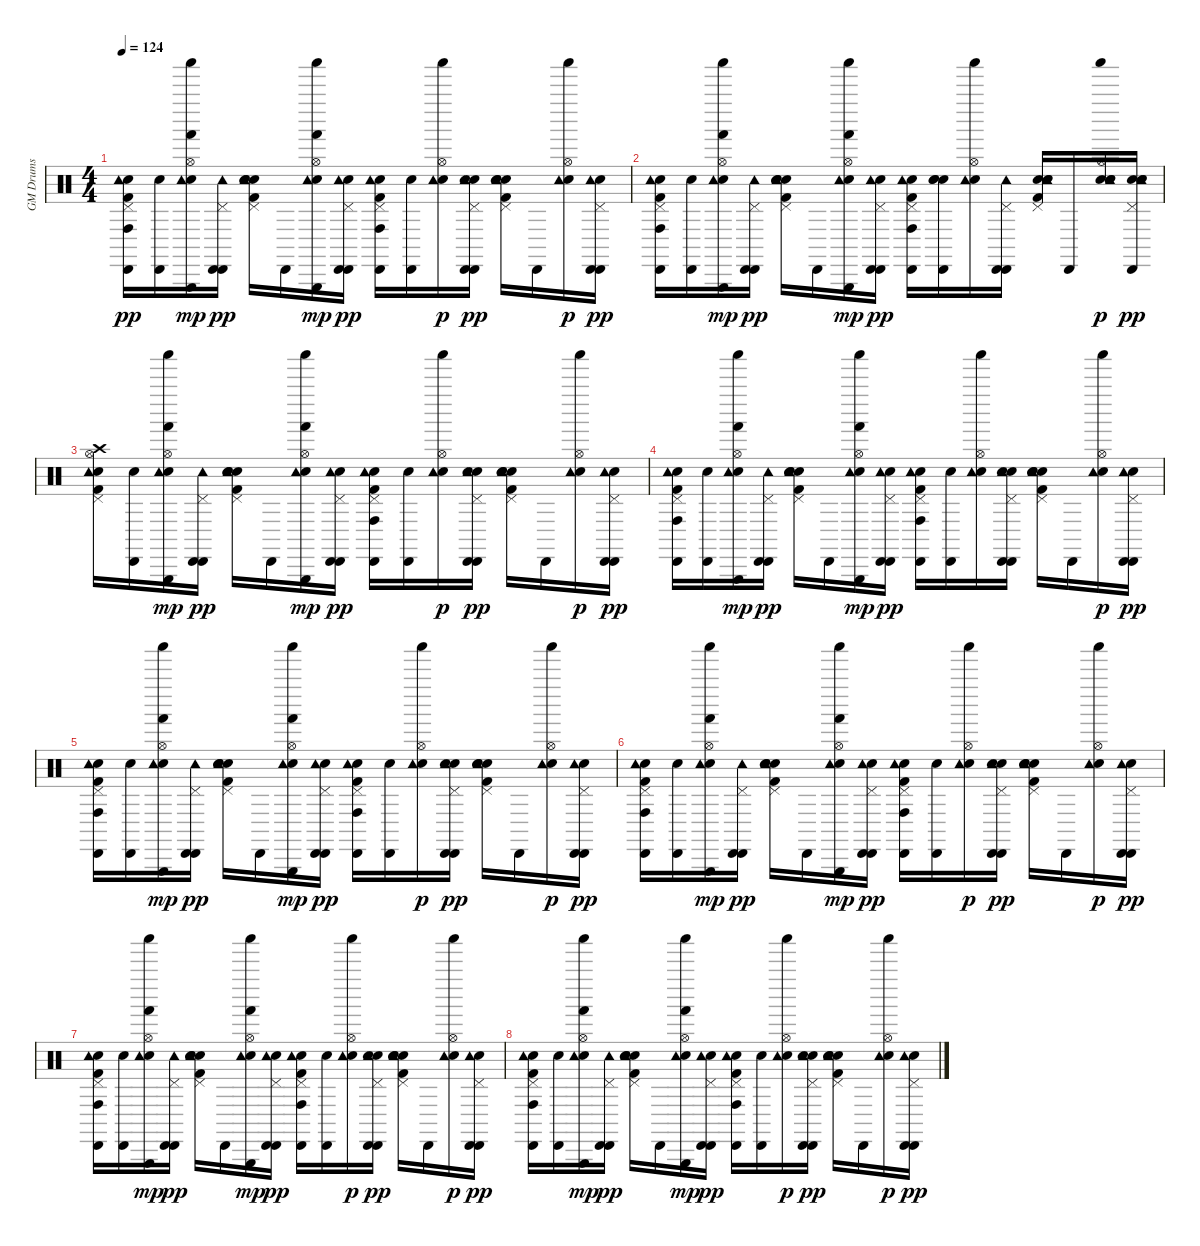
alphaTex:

\track ("GM Drums" "GM Drums") {instrument percussion}
\staff {score}
\articulation defaults
\ts (4 4)
\tempo 124
\clef neutral
\ks c
("Snare (hit)" "Kick (hit) 2" "Pedal Hi-Hat (hit)" "Tambourine (hit)" "Conga high (hit)" "Cabasa (hit)").16{dy pp} ("Snare (hit)" "Cabasa (hit)").16 ("Snare (hit)" "Hi-Hat (open)" "Tambourine (hit)" "Hand (hit)" "Triangle (hit)" "Shaker (hit)").16{dy mp} ("Pedal Hi-Hat (hit)" "Tambourine (hit)" "Cabasa (hit)" "Cabasa (hit)").16{dy pp} ("Snare (hit)" "Kick (hit) 2" "Snare (hit) 2" "Hand Clap (hit)" "Pedal Hi-Hat (hit)" "Tambourine (hit)").16 "Cabasa (hit)".16 ("Snare (hit)" "Hi-Hat (open)" "Tambourine (hit)" "Hand (hit)" "Triangle (hit)" "Shaker (hit)").16{dy mp} ("Snare (hit)" "Pedal Hi-Hat (hit)" "Tambourine (hit)" "Cabasa (hit)" "Cabasa (hit)").16{dy pp} ("Snare (hit)" "Kick (hit) 2" "Pedal Hi-Hat (hit)" "Tambourine (hit)" "Conga high (hit)" "Cabasa (hit)").16 ("Snare (hit)" "Cabasa (hit)").16 ("Snare (hit)" "Hi-Hat (open)" "Tambourine (hit)" "Shaker (hit)").16{dy p} ("Snare (hit) 2" "Hand Clap (hit)" "Pedal Hi-Hat (hit)" "Tambourine (hit)" "Cabasa (hit)" "Cabasa (hit)").16{dy pp} ("Snare (hit)" "Kick (hit) 2" "Snare (hit) 2" "Hand Clap (hit)" "Pedal Hi-Hat (hit)" "Tambourine (hit)").16 "Cabasa (hit)".16 ("Snare (hit)" "Hi-Hat (open)" "Tambourine (hit)" "Shaker (hit)").16{dy p} ("Snare (hit)" "Pedal Hi-Hat (hit)" "Tambourine (hit)" "Cabasa (hit)" "Cabasa (hit)").16{dy pp} |
("Snare (hit)" "Kick (hit) 2" "Pedal Hi-Hat (hit)" "Tambourine (hit)" "Conga high (hit)" "Cabasa (hit)").16 ("Snare (hit)" "Cabasa (hit)").16 ("Snare (hit)" "Hi-Hat (open)" "Tambourine (hit)" "Hand (hit)" "Triangle (hit)" "Shaker (hit)").16{dy mp} ("Pedal Hi-Hat (hit)" "Tambourine (hit)" "Cabasa (hit)" "Cabasa (hit)").16{dy pp} ("Snare (hit)" "Kick (hit) 2" "Snare (hit) 2" "Hand Clap (hit)" "Pedal Hi-Hat (hit)" "Tambourine (hit)").16 "Cabasa (hit)".16 ("Snare (hit)" "Hi-Hat (open)" "Tambourine (hit)" "Hand (hit)" "Triangle (hit)" "Shaker (hit)").16{dy mp} ("Snare (hit)" "Pedal Hi-Hat (hit)" "Tambourine (hit)" "Cabasa (hit)" "Cabasa (hit)").16{dy pp} ("Snare (hit)" "Kick (hit) 2" "Pedal Hi-Hat (hit)" "Tambourine (hit)" "Conga high (hit)" "Cabasa (hit)").16 ("Snare (hit)" "Snare (hit) 2" "Hand Clap (hit)" "Cabasa (hit)").16 ("Snare (hit)" "Hi-Hat (open)" "Tambourine (hit)" "Shaker (hit)").16 ("Pedal Hi-Hat (hit)" "Tambourine (hit)" "Cabasa (hit)" "Cabasa (hit)").16 ("Snare (hit)" "Kick (hit) 2" "Snare (hit) 2" "Hand Clap (hit)" "Pedal Hi-Hat (hit)" "Tambourine (hit)").16 "Cabasa (hit)".16 ("Snare (hit)" "Snare (hit) 2" "Hand Clap (hit)" "Hi-Hat (open)" "Tambourine (hit)" "Shaker (hit)").16{dy p} ("Snare (hit)" "Snare (hit) 2" "Hand Clap (hit)" "Pedal Hi-Hat (hit)" "Tambourine (hit)" "Cabasa (hit)").16{dy pp} |
("Snare (hit)" "Kick (hit) 2" "Pedal Hi-Hat (hit)" "Hi-Hat (open)" "Crash high (hit)" "Tambourine (hit)").16 ("Snare (hit)" "Cabasa (hit)").16 ("Snare (hit)" "Hi-Hat (open)" "Tambourine (hit)" "Hand (hit)" "Triangle (hit)" "Shaker (hit)").16{dy mp} ("Pedal Hi-Hat (hit)" "Tambourine (hit)" "Cabasa (hit)" "Cabasa (hit)").16{dy pp} ("Snare (hit)" "Kick (hit) 2" "Snare (hit) 2" "Hand Clap (hit)" "Pedal Hi-Hat (hit)" "Tambourine (hit)").16 "Cabasa (hit)".16 ("Snare (hit)" "Hi-Hat (open)" "Tambourine (hit)" "Hand (hit)" "Triangle (hit)" "Shaker (hit)").16{dy mp} ("Snare (hit)" "Pedal Hi-Hat (hit)" "Tambourine (hit)" "Cabasa (hit)" "Cabasa (hit)").16{dy pp} ("Snare (hit)" "Kick (hit) 2" "Pedal Hi-Hat (hit)" "Tambourine (hit)" "Conga high (hit)" "Cabasa (hit)").16 ("Snare (hit)" "Cabasa (hit)").16 ("Snare (hit)" "Hi-Hat (open)" "Tambourine (hit)" "Shaker (hit)").16{dy p} ("Snare (hit) 2" "Hand Clap (hit)" "Pedal Hi-Hat (hit)" "Tambourine (hit)" "Cabasa (hit)" "Cabasa (hit)").16{dy pp} ("Snare (hit)" "Kick (hit) 2" "Snare (hit) 2" "Hand Clap (hit)" "Pedal Hi-Hat (hit)" "Tambourine (hit)").16 "Cabasa (hit)".16 ("Snare (hit)" "Hi-Hat (open)" "Tambourine (hit)" "Shaker (hit)").16{dy p} ("Snare (hit)" "Pedal Hi-Hat (hit)" "Tambourine (hit)" "Cabasa (hit)" "Cabasa (hit)").16{dy pp} |
("Snare (hit)" "Kick (hit) 2" "Pedal Hi-Hat (hit)" "Tambourine (hit)" "Conga high (hit)" "Cabasa (hit)").16 ("Snare (hit)" "Cabasa (hit)").16 ("Snare (hit)" "Hi-Hat (open)" "Tambourine (hit)" "Hand (hit)" "Triangle (hit)" "Shaker (hit)").16{dy mp} ("Pedal Hi-Hat (hit)" "Tambourine (hit)" "Cabasa (hit)" "Cabasa (hit)").16{dy pp} ("Snare (hit)" "Kick (hit) 2" "Snare (hit) 2" "Hand Clap (hit)" "Pedal Hi-Hat (hit)" "Tambourine (hit)").16 "Cabasa (hit)".16 ("Snare (hit)" "Hi-Hat (open)" "Tambourine (hit)" "Hand (hit)" "Triangle (hit)" "Shaker (hit)").16{dy mp} ("Snare (hit)" "Pedal Hi-Hat (hit)" "Tambourine (hit)" "Cabasa (hit)" "Cabasa (hit)").16{dy pp} ("Snare (hit)" "Kick (hit) 2" "Pedal Hi-Hat (hit)" "Tambourine (hit)" "Conga high (hit)" "Cabasa (hit)").16 ("Snare (hit)" "Cabasa (hit)").16 ("Snare (hit)" "Hi-Hat (open)" "Tambourine (hit)" "Shaker (hit)").16 ("Snare (hit) 2" "Hand Clap (hit)" "Pedal Hi-Hat (hit)" "Tambourine (hit)" "Cabasa (hit)" "Cabasa (hit)").16 ("Snare (hit)" "Kick (hit) 2" "Snare (hit) 2" "Hand Clap (hit)" "Pedal Hi-Hat (hit)" "Tambourine (hit)").16 "Cabasa (hit)".16 ("Snare (hit)" "Hi-Hat (open)" "Tambourine (hit)" "Shaker (hit)").16{dy p} ("Snare (hit)" "Pedal Hi-Hat (hit)" "Tambourine (hit)" "Cabasa (hit)" "Cabasa (hit)").16{dy pp} |
("Snare (hit)" "Kick (hit) 2" "Pedal Hi-Hat (hit)" "Tambourine (hit)" "Conga high (hit)" "Cabasa (hit)").16 ("Snare (hit)" "Cabasa (hit)").16 ("Snare (hit)" "Hi-Hat (open)" "Tambourine (hit)" "Hand (hit)" "Triangle (hit)" "Shaker (hit)").16{dy mp} ("Pedal Hi-Hat (hit)" "Tambourine (hit)" "Cabasa (hit)" "Cabasa (hit)").16{dy pp} ("Snare (hit)" "Kick (hit) 2" "Snare (hit) 2" "Hand Clap (hit)" "Pedal Hi-Hat (hit)" "Tambourine (hit)").16 "Cabasa (hit)".16 ("Snare (hit)" "Hi-Hat (open)" "Tambourine (hit)" "Hand (hit)" "Triangle (hit)" "Shaker (hit)").16{dy mp} ("Snare (hit)" "Pedal Hi-Hat (hit)" "Tambourine (hit)" "Cabasa (hit)" "Cabasa (hit)").16{dy pp} ("Snare (hit)" "Kick (hit) 2" "Pedal Hi-Hat (hit)" "Tambourine (hit)" "Conga high (hit)" "Cabasa (hit)").16 ("Snare (hit)" "Cabasa (hit)").16 ("Snare (hit)" "Hi-Hat (open)" "Tambourine (hit)" "Shaker (hit)").16{dy p} ("Snare (hit) 2" "Hand Clap (hit)" "Pedal Hi-Hat (hit)" "Tambourine (hit)" "Cabasa (hit)" "Cabasa (hit)").16{dy pp} ("Snare (hit)" "Kick (hit) 2" "Snare (hit) 2" "Hand Clap (hit)" "Pedal Hi-Hat (hit)" "Tambourine (hit)").16 "Cabasa (hit)".16 ("Snare (hit)" "Hi-Hat (open)" "Tambourine (hit)" "Shaker (hit)").16{dy p} ("Snare (hit)" "Pedal Hi-Hat (hit)" "Tambourine (hit)" "Cabasa (hit)" "Cabasa (hit)").16{dy pp} |
("Snare (hit)" "Kick (hit) 2" "Pedal Hi-Hat (hit)" "Tambourine (hit)" "Conga high (hit)" "Cabasa (hit)").16 ("Snare (hit)" "Cabasa (hit)").16 ("Snare (hit)" "Hi-Hat (open)" "Tambourine (hit)" "Hand (hit)" "Triangle (hit)" "Shaker (hit)").16{dy mp} ("Pedal Hi-Hat (hit)" "Tambourine (hit)" "Cabasa (hit)" "Cabasa (hit)").16{dy pp} ("Snare (hit)" "Kick (hit) 2" "Snare (hit) 2" "Hand Clap (hit)" "Pedal Hi-Hat (hit)" "Tambourine (hit)").16 "Cabasa (hit)".16 ("Snare (hit)" "Hi-Hat (open)" "Tambourine (hit)" "Hand (hit)" "Triangle (hit)" "Shaker (hit)").16{dy mp} ("Snare (hit)" "Pedal Hi-Hat (hit)" "Tambourine (hit)" "Cabasa (hit)" "Cabasa (hit)").16{dy pp} ("Snare (hit)" "Kick (hit) 2" "Pedal Hi-Hat (hit)" "Tambourine (hit)" "Conga high (hit)" "Cabasa (hit)").16 ("Snare (hit)" "Cabasa (hit)").16 ("Snare (hit)" "Hi-Hat (open)" "Tambourine (hit)" "Shaker (hit)").16{dy p} ("Snare (hit) 2" "Hand Clap (hit)" "Pedal Hi-Hat (hit)" "Tambourine (hit)" "Cabasa (hit)" "Cabasa (hit)").16{dy pp} ("Snare (hit)" "Kick (hit) 2" "Snare (hit) 2" "Hand Clap (hit)" "Pedal Hi-Hat (hit)" "Tambourine (hit)").16 "Cabasa (hit)".16 ("Snare (hit)" "Hi-Hat (open)" "Tambourine (hit)" "Shaker (hit)").16{dy p} ("Snare (hit)" "Pedal Hi-Hat (hit)" "Tambourine (hit)" "Cabasa (hit)" "Cabasa (hit)").16{dy pp} |
("Snare (hit)" "Kick (hit) 2" "Pedal Hi-Hat (hit)" "Tambourine (hit)" "Conga high (hit)" "Cabasa (hit)").16 ("Snare (hit)" "Cabasa (hit)").16 ("Snare (hit)" "Hi-Hat (open)" "Tambourine (hit)" "Hand (hit)" "Triangle (hit)" "Shaker (hit)").16{dy mp} ("Pedal Hi-Hat (hit)" "Tambourine (hit)" "Cabasa (hit)" "Cabasa (hit)").16{dy pp} ("Snare (hit)" "Kick (hit) 2" "Snare (hit) 2" "Hand Clap (hit)" "Pedal Hi-Hat (hit)" "Tambourine (hit)").16 "Cabasa (hit)".16 ("Snare (hit)" "Hi-Hat (open)" "Tambourine (hit)" "Hand (hit)" "Triangle (hit)" "Shaker (hit)").16{dy mp} ("Snare (hit)" "Pedal Hi-Hat (hit)" "Tambourine (hit)" "Cabasa (hit)" "Cabasa (hit)").16{dy pp} ("Snare (hit)" "Kick (hit) 2" "Pedal Hi-Hat (hit)" "Tambourine (hit)" "Conga high (hit)" "Cabasa (hit)").16 ("Snare (hit)" "Cabasa (hit)").16 ("Snare (hit)" "Hi-Hat (open)" "Tambourine (hit)" "Shaker (hit)").16{dy p} ("Snare (hit) 2" "Hand Clap (hit)" "Pedal Hi-Hat (hit)" "Tambourine (hit)" "Cabasa (hit)" "Cabasa (hit)").16{dy pp} ("Snare (hit)" "Kick (hit) 2" "Snare (hit) 2" "Hand Clap (hit)" "Pedal Hi-Hat (hit)" "Tambourine (hit)").16 "Cabasa (hit)".16 ("Snare (hit)" "Hi-Hat (open)" "Tambourine (hit)" "Shaker (hit)").16{dy p} ("Snare (hit)" "Pedal Hi-Hat (hit)" "Tambourine (hit)" "Cabasa (hit)" "Cabasa (hit)").16{dy pp} |
("Snare (hit)" "Kick (hit) 2" "Pedal Hi-Hat (hit)" "Tambourine (hit)" "Conga high (hit)" "Cabasa (hit)").16 ("Snare (hit)" "Cabasa (hit)").16 ("Snare (hit)" "Hi-Hat (open)" "Tambourine (hit)" "Hand (hit)" "Triangle (hit)" "Shaker (hit)").16{dy mp} ("Pedal Hi-Hat (hit)" "Tambourine (hit)" "Cabasa (hit)" "Cabasa (hit)").16{dy pp} ("Snare (hit)" "Kick (hit) 2" "Snare (hit) 2" "Hand Clap (hit)" "Pedal Hi-Hat (hit)" "Tambourine (hit)").16 "Cabasa (hit)".16 ("Snare (hit)" "Hi-Hat (open)" "Tambourine (hit)" "Hand (hit)" "Triangle (hit)" "Shaker (hit)").16{dy mp} ("Snare (hit)" "Pedal Hi-Hat (hit)" "Tambourine (hit)" "Cabasa (hit)" "Cabasa (hit)").16{dy pp} ("Snare (hit)" "Kick (hit) 2" "Pedal Hi-Hat (hit)" "Tambourine (hit)" "Conga high (hit)" "Cabasa (hit)").16 ("Snare (hit)" "Cabasa (hit)").16 ("Snare (hit)" "Hi-Hat (open)" "Tambourine (hit)" "Shaker (hit)").16{dy p} ("Snare (hit) 2" "Hand Clap (hit)" "Pedal Hi-Hat (hit)" "Tambourine (hit)" "Cabasa (hit)" "Cabasa (hit)").16{dy pp} ("Snare (hit)" "Kick (hit) 2" "Snare (hit) 2" "Hand Clap (hit)" "Pedal Hi-Hat (hit)" "Tambourine (hit)").16 "Cabasa (hit)".16 ("Snare (hit)" "Hi-Hat (open)" "Tambourine (hit)" "Shaker (hit)").16{dy p} ("Snare (hit)" "Pedal Hi-Hat (hit)" "Tambourine (hit)" "Cabasa (hit)" "Cabasa (hit)").16{dy pp}
